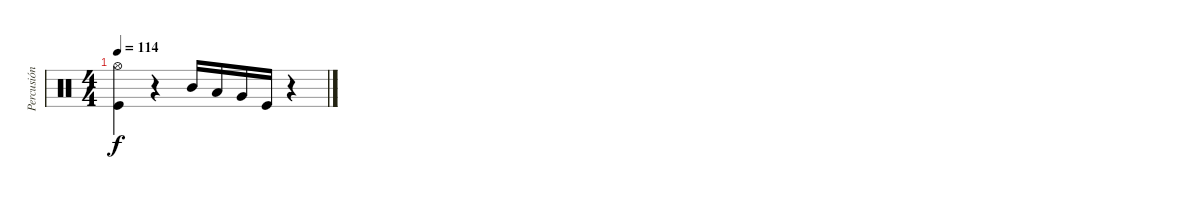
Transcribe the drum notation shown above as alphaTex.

\track ("Percusión" "Percusión") {instrument percussion}
\staff {score}
\articulation defaults
\ts (4 4)
\tempo 114
\clef neutral
\ks c
("Hi-Hat (open)" "Kick (hit)").4{dy f} r.4 "Mid Tom (hit)".16 "Low Tom (hit)".16 "Very Low Tom (hit)".16 "Kick (hit)".16 r.4
